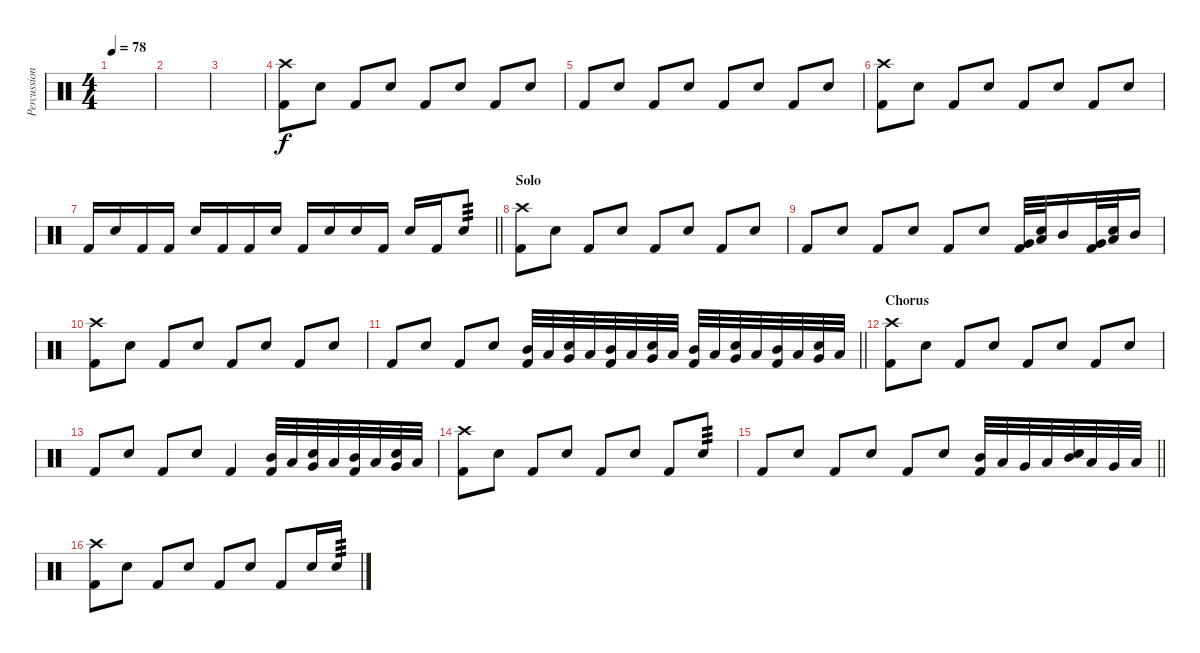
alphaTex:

\track ("Percussion" "Percussion") {instrument percussion}
\staff {score}
\articulation defaults
\ts (4 4)
\tempo 78
\clef neutral
\ks c
|
|
|
("Kick (hit) 2" "Crash high (hit)").8 "Snare (hit) 2".8 "Kick (hit) 2".8 "Snare (hit) 2".8 "Kick (hit) 2".8 "Snare (hit) 2".8 "Kick (hit) 2".8 "Snare (hit) 2".8 |
"Kick (hit) 2".8 "Snare (hit) 2".8 "Kick (hit) 2".8 "Snare (hit) 2".8 "Kick (hit) 2".8 "Snare (hit) 2".8 "Kick (hit) 2".8 "Snare (hit) 2".8 |
("Kick (hit) 2" "Crash high (hit)").8 "Snare (hit) 2".8 "Kick (hit) 2".8 "Snare (hit) 2".8 "Kick (hit) 2".8 "Snare (hit) 2".8 "Kick (hit) 2".8 "Snare (hit) 2".8 |
\barLineRight lightlight "Kick (hit) 2".16 "Electric Snare (hit)".16 "Kick (hit) 2".16 "Kick (hit) 2".16 "Electric Snare (hit)".16 "Kick (hit) 2".16 "Kick (hit) 2".16 "Electric Snare (hit)".16 "Kick (hit) 2".16 "Electric Snare (hit)".16 "Electric Snare (hit)".16 "Kick (hit) 2".16 "Electric Snare (hit)".16 "Kick (hit) 2".16 "Electric Snare (hit)".8{tp 3}
|
\section ("" "Solo")
("Kick (hit) 2" "Crash high (hit)").8 "Snare (hit) 2".8 "Kick (hit) 2".8 "Snare (hit) 2".8 "Kick (hit) 2".8 "Snare (hit) 2".8 "Kick (hit) 2".8 "Snare (hit) 2".8 |
"Kick (hit) 2".8 "Snare (hit) 2".8 "Kick (hit) 2".8 "Snare (hit) 2".8 "Kick (hit) 2".8 "Snare (hit) 2".8 ("Kick (hit) 2" "Very Low Tom (hit)").32 ("Low Tom (hit)" "Electric Snare (hit)").32 "Mid Tom (hit)".16 ("Kick (hit) 2" "Very Low Tom (hit)").32 ("Low Tom (hit)" "Electric Snare (hit)").32 "Mid Tom (hit)".16 |
("Kick (hit) 2" "Crash high (hit)").8 "Snare (hit) 2".8 "Kick (hit) 2".8 "Snare (hit) 2".8 "Kick (hit) 2".8 "Snare (hit) 2".8 "Kick (hit) 2".8 "Snare (hit) 2".8 |
\barLineRight lightlight "Kick (hit) 2".8 "Snare (hit) 2".8 "Kick (hit) 2".8 "Snare (hit) 2".8
("Kick (hit) 2" "Mid Tom (hit)").32 "Low Tom (hit)".32 ("Snare (hit) 2" "Very Low Tom (hit)").32 "Low Tom (hit)".32 ("Kick (hit) 2" "Mid Tom (hit)").32 "Low Tom (hit)".32 ("Snare (hit) 2" "Very Low Tom (hit)").32 "Low Tom (hit)".32 ("Kick (hit) 2" "Mid Tom (hit)").32 "Low Tom (hit)".32 ("Snare (hit) 2" "Very Low Tom (hit)").32 "Low Tom (hit)".32 ("Kick (hit) 2" "Mid Tom (hit)").32 "Low Tom (hit)".32 ("Snare (hit) 2" "Very Low Tom (hit)").32 "Low Tom (hit)".32 |
\section ("" "Chorus")
("Kick (hit) 2" "Crash high (hit)").8 "Snare (hit) 2".8 "Kick (hit) 2".8 "Snare (hit) 2".8 "Kick (hit) 2".8 "Snare (hit) 2".8 "Kick (hit) 2".8 "Snare (hit) 2".8 |
"Kick (hit) 2".8 "Snare (hit) 2".8 "Kick (hit) 2".8 "Snare (hit) 2".8 "Kick (hit) 2".4 ("Kick (hit) 2" "Mid Tom (hit)").32 "Low Tom (hit)".32 ("Snare (hit) 2" "Very Low Tom (hit)").32 "Low Tom (hit)".32 ("Kick (hit) 2" "Mid Tom (hit)").32 "Low Tom (hit)".32 ("Snare (hit) 2" "Very Low Tom (hit)").32 "Low Tom (hit)".32 |
("Kick (hit) 2" "Crash high (hit)").8 "Snare (hit) 2".8 "Kick (hit) 2".8 "Snare (hit) 2".8 "Kick (hit) 2".8 "Snare (hit) 2".8 "Kick (hit) 2".8 "Snare (hit) 2".8{tp 3} |
\barLineRight lightlight "Kick (hit) 2".8 "Snare (hit) 2".8 "Kick (hit) 2".8 "Snare (hit) 2".8 "Kick (hit) 2".8 "Snare (hit) 2".8
("Kick (hit) 2" "Mid Tom (hit)").32 "Low Tom (hit)".32 "Very Low Tom (hit)".32 "Low Tom (hit)".32 ("Snare (hit) 2" "Mid Tom (hit)").32 "Low Tom (hit)".32 "Very Low Tom (hit)".32 "Low Tom (hit)".32 |
("Kick (hit) 2" "Crash high (hit)").8 "Snare (hit) 2".8 "Kick (hit) 2".8 "Snare (hit) 2".8 "Kick (hit) 2".8 "Snare (hit) 2".8 "Kick (hit) 2".8 "Snare (hit) 2".16 "Snare (hit) 2".16{tp 3}
